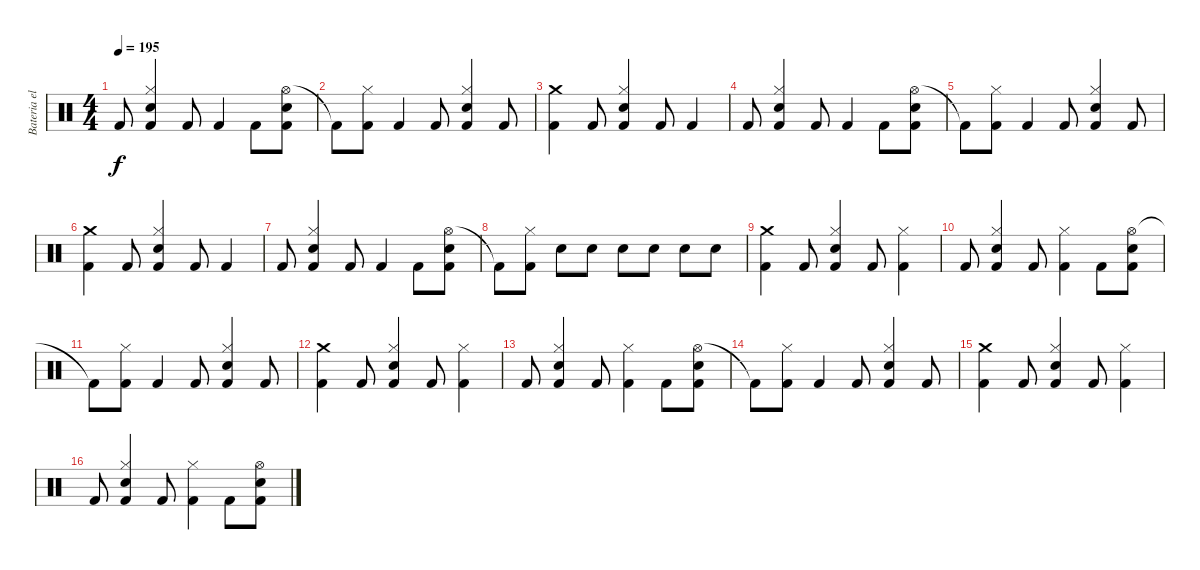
\track ("Bateria electrica" "Bateria el") {instrument percussion}
\staff {score}
\articulation defaults
\ts (4 4)
\tempo 195
\clef neutral
\ks c "Kick (hit) 2".8{dy f}
("Hi-Hat (closed)" "Kick (hit) 2" "Snare (hit) 2").4 "Kick (hit) 2".8 "Kick (hit) 2".4 "Kick (hit) 2".8 ("Hi-Hat (open)" "Kick (hit) 2" "Snare (hit) 2").8 |
"Kick (hit) 2"{t}.8 ("Hi-Hat (closed)" "Kick (hit) 2").8 "Kick (hit) 2".4 "Kick (hit) 2".8 ("Hi-Hat (closed)" "Kick (hit) 2" "Snare (hit) 2").4 "Kick (hit) 2".8 |
("Crash medium (hit)" "Kick (hit) 2").4 "Kick (hit) 2".8 ("Hi-Hat (closed)" "Kick (hit) 2" "Snare (hit) 2").4 "Kick (hit) 2".8 "Kick (hit) 2".4 |
"Kick (hit) 2".8 ("Hi-Hat (closed)" "Kick (hit) 2" "Snare (hit) 2").4 "Kick (hit) 2".8 "Kick (hit) 2".4 "Kick (hit) 2".8 ("Hi-Hat (open)" "Kick (hit) 2" "Snare (hit) 2").8 |
"Kick (hit) 2"{t}.8 ("Hi-Hat (closed)" "Kick (hit) 2").8 "Kick (hit) 2".4 "Kick (hit) 2".8 ("Hi-Hat (closed)" "Kick (hit) 2" "Snare (hit) 2").4 "Kick (hit) 2".8 |
("Crash medium (hit)" "Kick (hit) 2").4 "Kick (hit) 2".8 ("Hi-Hat (closed)" "Kick (hit) 2" "Snare (hit) 2").4 "Kick (hit) 2".8 "Kick (hit) 2".4 |
"Kick (hit) 2".8 ("Hi-Hat (closed)" "Kick (hit) 2" "Snare (hit) 2").4 "Kick (hit) 2".8 "Kick (hit) 2".4 "Kick (hit) 2".8 ("Hi-Hat (open)" "Kick (hit) 2" "Snare (hit) 2").8 |
"Kick (hit) 2"{t}.8 ("Hi-Hat (closed)" "Kick (hit) 2").8 "Snare (hit) 2".8 "Snare (hit) 2".8 "Snare (hit) 2".8 "Snare (hit) 2".8 "Snare (hit) 2".8 "Snare (hit) 2".8 |
("Crash medium (hit)" "Kick (hit) 2").4 "Kick (hit) 2".8 ("Hi-Hat (closed)" "Kick (hit) 2" "Snare (hit) 2").4 "Kick (hit) 2".8 ("Hi-Hat (closed)" "Kick (hit) 2").4 |
"Kick (hit) 2".8 ("Hi-Hat (closed)" "Kick (hit) 2" "Snare (hit) 2").4 "Kick (hit) 2".8 ("Hi-Hat (closed)" "Kick (hit) 2").4 "Kick (hit) 2".8 ("Hi-Hat (open)" "Kick (hit) 2" "Snare (hit) 2").8 |
"Kick (hit) 2"{t}.8 ("Hi-Hat (closed)" "Kick (hit) 2").8 "Kick (hit) 2".4 "Kick (hit) 2".8 ("Hi-Hat (closed)" "Kick (hit) 2" "Snare (hit) 2").4 "Kick (hit) 2".8 |
("Crash medium (hit)" "Kick (hit) 2").4 "Kick (hit) 2".8 ("Hi-Hat (closed)" "Kick (hit) 2" "Snare (hit) 2").4 "Kick (hit) 2".8 ("Hi-Hat (closed)" "Kick (hit) 2").4 |
"Kick (hit) 2".8 ("Hi-Hat (closed)" "Kick (hit) 2" "Snare (hit) 2").4 "Kick (hit) 2".8 ("Hi-Hat (closed)" "Kick (hit) 2").4 "Kick (hit) 2".8 ("Hi-Hat (open)" "Kick (hit) 2" "Snare (hit) 2").8 |
"Kick (hit) 2"{t}.8 ("Hi-Hat (closed)" "Kick (hit) 2").8 "Kick (hit) 2".4 "Kick (hit) 2".8 ("Hi-Hat (closed)" "Kick (hit) 2" "Snare (hit) 2").4 "Kick (hit) 2".8 |
("Crash medium (hit)" "Kick (hit) 2").4 "Kick (hit) 2".8 ("Hi-Hat (closed)" "Kick (hit) 2" "Snare (hit) 2").4 "Kick (hit) 2".8 ("Hi-Hat (closed)" "Kick (hit) 2").4 |
"Kick (hit) 2".8 ("Hi-Hat (closed)" "Kick (hit) 2" "Snare (hit) 2").4 "Kick (hit) 2".8 ("Hi-Hat (closed)" "Kick (hit) 2").4 "Kick (hit) 2".8 ("Hi-Hat (open)" "Kick (hit) 2" "Snare (hit) 2").8
